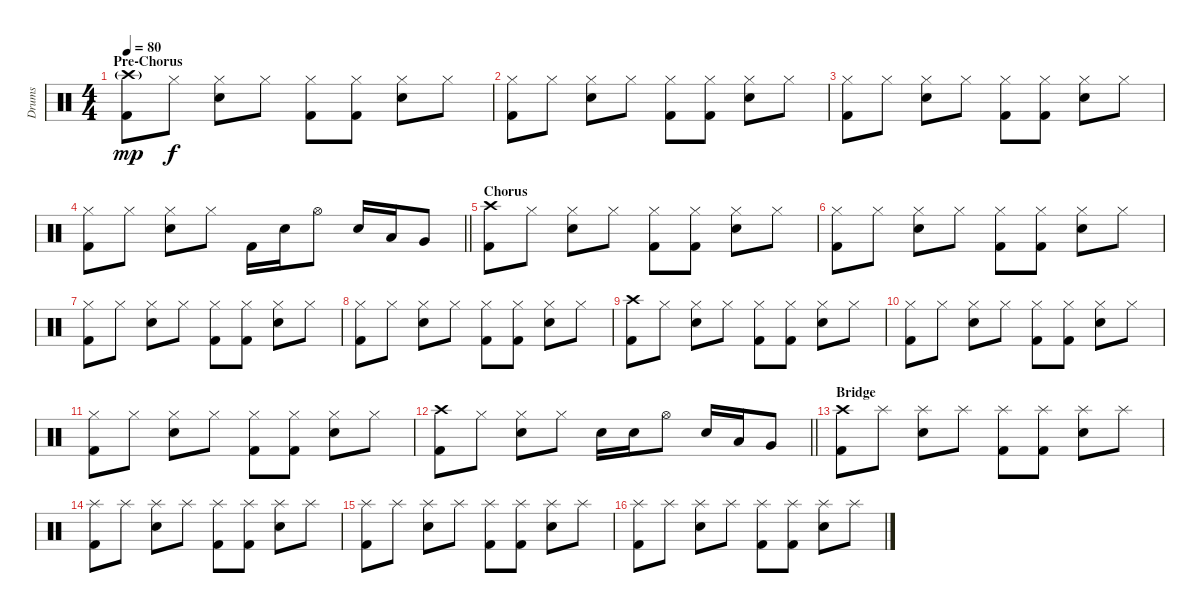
\track ("Drums" "Drums") {instrument percussion}
\staff {score}
\articulation defaults
\ts (4 4)
\section ("" "Pre-Chorus")
\tempo 80
\clef neutral
\ks c
("Crash high (hit)"{g} "Kick (hit) 2").8{dy mp} "Hi-Hat (closed)".8{dy f} ("Hi-Hat (closed)" "Snare (hit) 2").8 "Hi-Hat (closed)".8 ("Hi-Hat (closed)" "Kick (hit) 2").8 ("Hi-Hat (closed)" "Kick (hit) 2").8 ("Hi-Hat (closed)" "Snare (hit) 2").8 "Hi-Hat (closed)".8 |
("Hi-Hat (closed)" "Kick (hit) 2").8 "Hi-Hat (closed)".8 ("Hi-Hat (closed)" "Snare (hit) 2").8 "Hi-Hat (closed)".8 ("Hi-Hat (closed)" "Kick (hit) 2").8 ("Hi-Hat (closed)" "Kick (hit) 2").8 ("Hi-Hat (closed)" "Snare (hit) 2").8 "Hi-Hat (closed)".8 |
("Hi-Hat (closed)" "Kick (hit) 2").8 "Hi-Hat (closed)".8 ("Hi-Hat (closed)" "Snare (hit) 2").8 "Hi-Hat (closed)".8 ("Hi-Hat (closed)" "Kick (hit) 2").8 ("Hi-Hat (closed)" "Kick (hit) 2").8 ("Hi-Hat (closed)" "Snare (hit) 2").8 "Hi-Hat (closed)".8 |
\barLineRight lightlight
("Hi-Hat (closed)" "Kick (hit) 2").8 "Hi-Hat (closed)".8 ("Hi-Hat (closed)" "Snare (hit) 2").8 "Hi-Hat (closed)".8 "Kick (hit) 2".16 "Snare (hit) 2".16 "Hi-Hat (open)".8 "Snare (hit) 2".16 "Low Tom (hit)".16 "Very Low Tom (hit)".8 |
\section ("" "Chorus")
("Crash high (hit)" "Kick (hit) 2").8 "Hi-Hat (closed)".8 ("Hi-Hat (closed)" "Snare (hit) 2").8 "Hi-Hat (closed)".8 ("Hi-Hat (closed)" "Kick (hit) 2").8 ("Hi-Hat (closed)" "Kick (hit) 2").8 ("Hi-Hat (closed)" "Snare (hit) 2").8 "Hi-Hat (closed)".8 |
("Hi-Hat (closed)" "Kick (hit) 2").8 "Hi-Hat (closed)".8 ("Hi-Hat (closed)" "Snare (hit) 2").8 "Hi-Hat (closed)".8 ("Hi-Hat (closed)" "Kick (hit) 2").8 ("Hi-Hat (closed)" "Kick (hit) 2").8 ("Hi-Hat (closed)" "Snare (hit) 2").8 "Hi-Hat (closed)".8 |
("Hi-Hat (closed)" "Kick (hit) 2").8 "Hi-Hat (closed)".8 ("Hi-Hat (closed)" "Snare (hit) 2").8 "Hi-Hat (closed)".8 ("Hi-Hat (closed)" "Kick (hit) 2").8 ("Hi-Hat (closed)" "Kick (hit) 2").8 ("Hi-Hat (closed)" "Snare (hit) 2").8 "Hi-Hat (closed)".8 |
("Hi-Hat (closed)" "Kick (hit) 2").8 "Hi-Hat (closed)".8 ("Hi-Hat (closed)" "Snare (hit) 2").8 "Hi-Hat (closed)".8 ("Hi-Hat (closed)" "Kick (hit) 2").8 ("Hi-Hat (closed)" "Kick (hit) 2").8 ("Hi-Hat (closed)" "Snare (hit) 2").8 "Hi-Hat (closed)".8 |
("Crash high (hit)" "Kick (hit) 2").8 "Hi-Hat (closed)".8 ("Hi-Hat (closed)" "Snare (hit) 2").8 "Hi-Hat (closed)".8 ("Hi-Hat (closed)" "Kick (hit) 2").8 ("Hi-Hat (closed)" "Kick (hit) 2").8 ("Hi-Hat (closed)" "Snare (hit) 2").8 "Hi-Hat (closed)".8 |
("Hi-Hat (closed)" "Kick (hit) 2").8 "Hi-Hat (closed)".8 ("Hi-Hat (closed)" "Snare (hit) 2").8 "Hi-Hat (closed)".8 ("Hi-Hat (closed)" "Kick (hit) 2").8 ("Hi-Hat (closed)" "Kick (hit) 2").8 ("Hi-Hat (closed)" "Snare (hit) 2").8 "Hi-Hat (closed)".8 |
("Hi-Hat (closed)" "Kick (hit) 2").8 "Hi-Hat (closed)".8 ("Hi-Hat (closed)" "Snare (hit) 2").8 "Hi-Hat (closed)".8 ("Hi-Hat (closed)" "Kick (hit) 2").8 ("Hi-Hat (closed)" "Kick (hit) 2").8 ("Hi-Hat (closed)" "Snare (hit) 2").8 "Hi-Hat (closed)".8 |
\barLineRight lightlight
("Crash high (hit)" "Kick (hit) 2").8 "Hi-Hat (closed)".8 ("Hi-Hat (closed)" "Snare (hit) 2").8 "Hi-Hat (closed)".8 "Snare (hit) 2".16 "Snare (hit) 2".16 "Hi-Hat (open)".8 "Snare (hit) 2".16 "Low Tom (hit)".16 "Very Low Tom (hit)".8 |
\section ("" "Bridge")
("Crash high (hit)" "Kick (hit) 2").8 "Splash (hit)".8 ("Splash (hit)" "Snare (hit) 2").8 "Splash (hit)".8 ("Splash (hit)" "Kick (hit) 2").8 ("Splash (hit)" "Kick (hit) 2").8 ("Splash (hit)" "Snare (hit) 2").8 "Splash (hit)".8 |
("Splash (hit)" "Kick (hit) 2").8 "Splash (hit)".8 ("Splash (hit)" "Snare (hit) 2").8 "Splash (hit)".8 ("Splash (hit)" "Kick (hit) 2").8 ("Splash (hit)" "Kick (hit) 2").8 ("Splash (hit)" "Snare (hit) 2").8 "Splash (hit)".8 |
("Splash (hit)" "Kick (hit) 2").8 "Splash (hit)".8 ("Splash (hit)" "Snare (hit) 2").8 "Splash (hit)".8 ("Splash (hit)" "Kick (hit) 2").8 ("Splash (hit)" "Kick (hit) 2").8 ("Splash (hit)" "Snare (hit) 2").8 "Splash (hit)".8 |
("Splash (hit)" "Kick (hit) 2").8 "Splash (hit)".8 ("Splash (hit)" "Snare (hit) 2").8 "Splash (hit)".8 ("Splash (hit)" "Kick (hit) 2").8 ("Splash (hit)" "Kick (hit) 2").8 ("Splash (hit)" "Snare (hit) 2").8 "Splash (hit)".8
